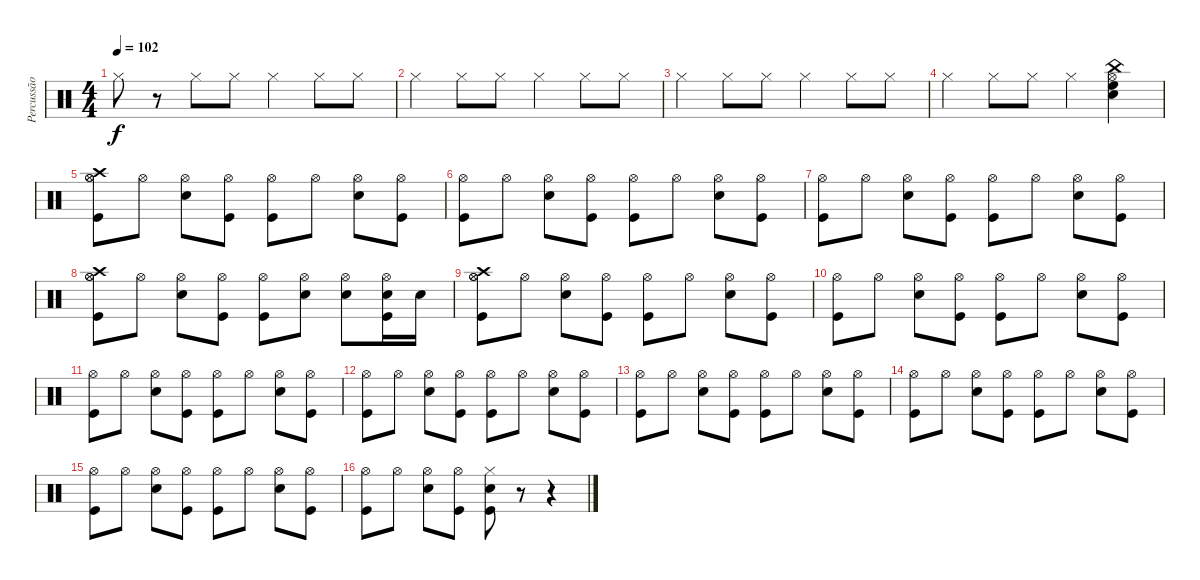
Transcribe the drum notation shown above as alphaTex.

\track ("Percussão" "Percussão") {instrument percussion}
\staff {score}
\articulation defaults
\ts (4 4)
\tempo 102
\clef neutral
\ks c "Hi-Hat (closed)".8{dy f}
r.8 "Hi-Hat (closed)".8 "Hi-Hat (closed)".8 "Hi-Hat (closed)".4 "Hi-Hat (closed)".8 "Hi-Hat (closed)".8 |
"Hi-Hat (closed)".4 "Hi-Hat (closed)".8 "Hi-Hat (closed)".8 "Hi-Hat (closed)".4 "Hi-Hat (closed)".8 "Hi-Hat (closed)".8 |
"Hi-Hat (closed)".4 "Hi-Hat (closed)".8 "Hi-Hat (closed)".8 "Hi-Hat (closed)".4 "Hi-Hat (closed)".8 "Hi-Hat (closed)".8 |
"Hi-Hat (closed)".4 "Hi-Hat (closed)".8 "Hi-Hat (closed)".8 "Hi-Hat (closed)".4 ("High Floor Tom (hit)" "Hi-Hat (open)" "Snare (hit) 2" "China (hit)").4 |
("Hi-Hat (open)" "Crash high (hit)" "Hi-Hat (open)" "Kick (hit)").8 "Hi-Hat (open)".8 ("Snare (hit) 2" "Hi-Hat (open)").8 ("Hi-Hat (open)" "Kick (hit)").8 ("Hi-Hat (open)" "Kick (hit)").8 "Hi-Hat (open)".8 ("Hi-Hat (open)" "Snare (hit) 2").8 ("Hi-Hat (open)" "Kick (hit)").8 |
("Hi-Hat (open)" "Kick (hit)").8 "Hi-Hat (open)".8 ("Snare (hit) 2" "Hi-Hat (open)").8 ("Hi-Hat (open)" "Kick (hit)").8 ("Hi-Hat (open)" "Kick (hit)").8 "Hi-Hat (open)".8 ("Hi-Hat (open)" "Snare (hit) 2").8 ("Hi-Hat (open)" "Kick (hit)").8 |
("Hi-Hat (open)" "Kick (hit)").8 "Hi-Hat (open)".8 ("Snare (hit) 2" "Hi-Hat (open)").8 ("Hi-Hat (open)" "Kick (hit)").8 ("Hi-Hat (open)" "Kick (hit)").8 "Hi-Hat (open)".8 ("Hi-Hat (open)" "Snare (hit) 2").8 ("Hi-Hat (open)" "Kick (hit)").8 |
("Hi-Hat (open)" "Crash high (hit)" "Hi-Hat (open)" "Kick (hit)").8 "Hi-Hat (open)".8 ("Snare (hit) 2" "Hi-Hat (open)").8 ("Hi-Hat (open)" "Kick (hit)").8 ("Hi-Hat (open)" "Kick (hit)").8 ("Hi-Hat (open)" "Snare (hit) 2").8 ("Hi-Hat (open)" "Snare (hit) 2").8 ("Hi-Hat (open)" "Kick (hit)" "Snare (hit) 2").16 "Snare (hit) 2".16 |
("Hi-Hat (open)" "Crash high (hit)" "Hi-Hat (open)" "Kick (hit)").8 "Hi-Hat (open)".8 ("Snare (hit) 2" "Hi-Hat (open)").8 ("Hi-Hat (open)" "Kick (hit)").8 ("Hi-Hat (open)" "Kick (hit)").8 "Hi-Hat (open)".8 ("Hi-Hat (open)" "Snare (hit) 2").8 ("Hi-Hat (open)" "Kick (hit)").8 |
("Hi-Hat (open)" "Kick (hit)").8 "Hi-Hat (open)".8 ("Snare (hit) 2" "Hi-Hat (open)").8 ("Hi-Hat (open)" "Kick (hit)").8 ("Hi-Hat (open)" "Kick (hit)").8 "Hi-Hat (open)".8 ("Hi-Hat (open)" "Snare (hit) 2").8 ("Hi-Hat (open)" "Kick (hit)").8 |
("Hi-Hat (open)" "Kick (hit)").8 "Hi-Hat (open)".8 ("Snare (hit) 2" "Hi-Hat (open)").8 ("Hi-Hat (open)" "Kick (hit)").8 ("Hi-Hat (open)" "Kick (hit)").8 "Hi-Hat (open)".8 ("Hi-Hat (open)" "Snare (hit) 2").8 ("Hi-Hat (open)" "Kick (hit)").8 |
("Hi-Hat (open)" "Kick (hit)").8 "Hi-Hat (open)".8 ("Snare (hit) 2" "Hi-Hat (open)").8 ("Hi-Hat (open)" "Kick (hit)").8 ("Hi-Hat (open)" "Kick (hit)").8 "Hi-Hat (open)".8 ("Hi-Hat (open)" "Snare (hit) 2").8 ("Hi-Hat (open)" "Kick (hit)").8 |
("Hi-Hat (open)" "Kick (hit)").8 "Hi-Hat (open)".8 ("Snare (hit) 2" "Hi-Hat (open)").8 ("Hi-Hat (open)" "Kick (hit)").8 ("Hi-Hat (open)" "Kick (hit)").8 "Hi-Hat (open)".8 ("Hi-Hat (open)" "Snare (hit) 2").8 ("Hi-Hat (open)" "Kick (hit)").8 |
("Hi-Hat (open)" "Kick (hit)").8 "Hi-Hat (open)".8 ("Snare (hit) 2" "Hi-Hat (open)").8 ("Hi-Hat (open)" "Kick (hit)").8 ("Hi-Hat (open)" "Kick (hit)").8 "Hi-Hat (open)".8 ("Hi-Hat (open)" "Snare (hit) 2").8 ("Hi-Hat (open)" "Kick (hit)").8 |
("Hi-Hat (open)" "Kick (hit)").8 "Hi-Hat (open)".8 ("Snare (hit) 2" "Hi-Hat (open)").8 ("Hi-Hat (open)" "Kick (hit)").8 ("Hi-Hat (open)" "Kick (hit)").8 "Hi-Hat (open)".8 ("Hi-Hat (open)" "Snare (hit) 2").8 ("Hi-Hat (open)" "Kick (hit)").8 |
("Hi-Hat (open)" "Kick (hit)").8 "Hi-Hat (open)".8 ("Snare (hit) 2" "Hi-Hat (open)").8 ("Hi-Hat (open)" "Kick (hit)").8 ("Kick (hit)" "Snare (hit) 2" "Hi-Hat (closed)").8 r.8 r.4
